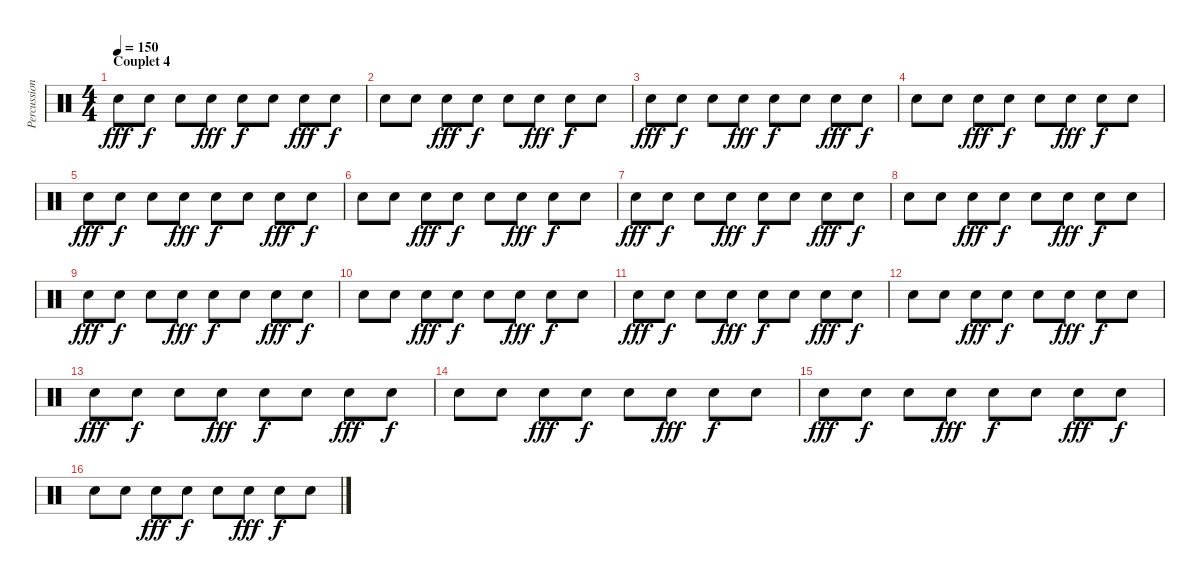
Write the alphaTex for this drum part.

\track ("Percussions" "Percussion") {instrument percussion}
\staff {score}
\articulation defaults
\ts (4 4)
\section ("" "Couplet 4")
\tempo 150
\clef neutral
\ks c "Electric Snare (hit)".8{dy fff} "Electric Snare (hit)".8{dy f} "Electric Snare (hit)".8 "Electric Snare (hit)".8{dy fff} "Electric Snare (hit)".8{dy f} "Electric Snare (hit)".8 "Electric Snare (hit)".8{dy fff} "Electric Snare (hit)".8{dy f}
|
"Electric Snare (hit)".8 "Electric Snare (hit)".8 "Electric Snare (hit)".8{dy fff} "Electric Snare (hit)".8{dy f} "Electric Snare (hit)".8 "Electric Snare (hit)".8{dy fff} "Electric Snare (hit)".8{dy f} "Electric Snare (hit)".8 |
"Electric Snare (hit)".8{dy fff} "Electric Snare (hit)".8{dy f} "Electric Snare (hit)".8 "Electric Snare (hit)".8{dy fff} "Electric Snare (hit)".8{dy f} "Electric Snare (hit)".8 "Electric Snare (hit)".8{dy fff} "Electric Snare (hit)".8{dy f} |
"Electric Snare (hit)".8 "Electric Snare (hit)".8 "Electric Snare (hit)".8{dy fff} "Electric Snare (hit)".8{dy f} "Electric Snare (hit)".8 "Electric Snare (hit)".8{dy fff} "Electric Snare (hit)".8{dy f} "Electric Snare (hit)".8 |
"Electric Snare (hit)".8{dy fff} "Electric Snare (hit)".8{dy f} "Electric Snare (hit)".8 "Electric Snare (hit)".8{dy fff} "Electric Snare (hit)".8{dy f} "Electric Snare (hit)".8 "Electric Snare (hit)".8{dy fff} "Electric Snare (hit)".8{dy f} |
"Electric Snare (hit)".8 "Electric Snare (hit)".8 "Electric Snare (hit)".8{dy fff} "Electric Snare (hit)".8{dy f} "Electric Snare (hit)".8 "Electric Snare (hit)".8{dy fff} "Electric Snare (hit)".8{dy f} "Electric Snare (hit)".8 |
"Electric Snare (hit)".8{dy fff} "Electric Snare (hit)".8{dy f} "Electric Snare (hit)".8 "Electric Snare (hit)".8{dy fff} "Electric Snare (hit)".8{dy f} "Electric Snare (hit)".8 "Electric Snare (hit)".8{dy fff} "Electric Snare (hit)".8{dy f} |
"Electric Snare (hit)".8 "Electric Snare (hit)".8 "Electric Snare (hit)".8{dy fff} "Electric Snare (hit)".8{dy f} "Electric Snare (hit)".8 "Electric Snare (hit)".8{dy fff} "Electric Snare (hit)".8{dy f} "Electric Snare (hit)".8 |
"Electric Snare (hit)".8{dy fff} "Electric Snare (hit)".8{dy f} "Electric Snare (hit)".8 "Electric Snare (hit)".8{dy fff} "Electric Snare (hit)".8{dy f} "Electric Snare (hit)".8 "Electric Snare (hit)".8{dy fff} "Electric Snare (hit)".8{dy f} |
"Electric Snare (hit)".8 "Electric Snare (hit)".8 "Electric Snare (hit)".8{dy fff} "Electric Snare (hit)".8{dy f} "Electric Snare (hit)".8 "Electric Snare (hit)".8{dy fff} "Electric Snare (hit)".8{dy f} "Electric Snare (hit)".8 |
"Electric Snare (hit)".8{dy fff} "Electric Snare (hit)".8{dy f} "Electric Snare (hit)".8 "Electric Snare (hit)".8{dy fff} "Electric Snare (hit)".8{dy f} "Electric Snare (hit)".8 "Electric Snare (hit)".8{dy fff} "Electric Snare (hit)".8{dy f} |
"Electric Snare (hit)".8 "Electric Snare (hit)".8 "Electric Snare (hit)".8{dy fff} "Electric Snare (hit)".8{dy f} "Electric Snare (hit)".8 "Electric Snare (hit)".8{dy fff} "Electric Snare (hit)".8{dy f} "Electric Snare (hit)".8 |
"Electric Snare (hit)".8{dy fff} "Electric Snare (hit)".8{dy f} "Electric Snare (hit)".8 "Electric Snare (hit)".8{dy fff} "Electric Snare (hit)".8{dy f} "Electric Snare (hit)".8 "Electric Snare (hit)".8{dy fff} "Electric Snare (hit)".8{dy f} |
"Electric Snare (hit)".8 "Electric Snare (hit)".8 "Electric Snare (hit)".8{dy fff} "Electric Snare (hit)".8{dy f} "Electric Snare (hit)".8 "Electric Snare (hit)".8{dy fff} "Electric Snare (hit)".8{dy f} "Electric Snare (hit)".8 |
"Electric Snare (hit)".8{dy fff} "Electric Snare (hit)".8{dy f} "Electric Snare (hit)".8 "Electric Snare (hit)".8{dy fff} "Electric Snare (hit)".8{dy f} "Electric Snare (hit)".8 "Electric Snare (hit)".8{dy fff} "Electric Snare (hit)".8{dy f} |
"Electric Snare (hit)".8 "Electric Snare (hit)".8 "Electric Snare (hit)".8{dy fff} "Electric Snare (hit)".8{dy f} "Electric Snare (hit)".8 "Electric Snare (hit)".8{dy fff} "Electric Snare (hit)".8{dy f} "Electric Snare (hit)".8
